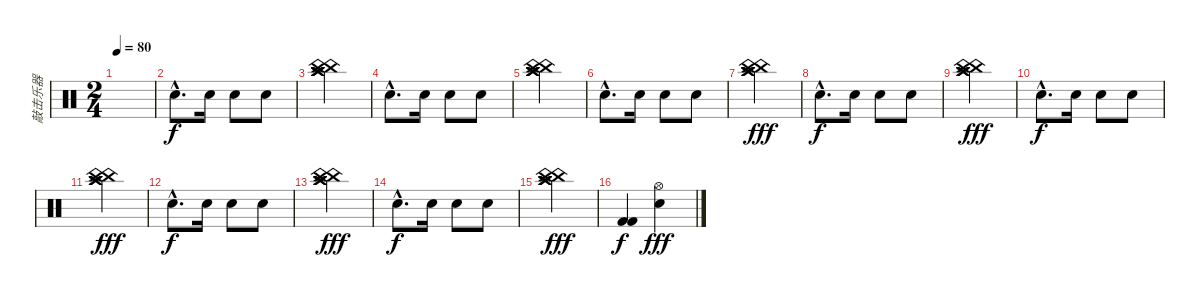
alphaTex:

\track ("敲击乐器" "敲击乐器") {instrument percussion}
\staff {score}
\articulation defaults
\ts (2 4)
\tempo 80
\clef neutral
\ks c
|
"Snare (hit) 2"{hac}.8{d} "Snare (hit) 2".16 "Snare (hit) 2".8 "Snare (hit) 2".8 |
("Crash high (hit)" "Crash high (hit)" "Crash high (hit)" "China (hit)" "China (hit)").4 |
"Snare (hit) 2"{hac}.8{d} "Snare (hit) 2".16 "Snare (hit) 2".8 "Snare (hit) 2".8 |
("Crash high (hit)" "Crash high (hit)" "Crash high (hit)" "China (hit)" "China (hit)").4 |
"Snare (hit) 2"{hac}.8{d dy f} "Snare (hit) 2".16 "Snare (hit) 2".8 "Snare (hit) 2".8 |
("Crash high (hit)" "Crash high (hit)" "Crash high (hit)" "China (hit)" "China (hit)").4{dy fff} |
"Snare (hit) 2"{hac}.8{d dy f} "Snare (hit) 2".16 "Snare (hit) 2".8 "Snare (hit) 2".8 |
("Crash high (hit)" "Crash high (hit)" "Crash high (hit)" "China (hit)" "China (hit)").4{dy fff} |
"Snare (hit) 2"{hac}.8{d dy f} "Snare (hit) 2".16 "Snare (hit) 2".8 "Snare (hit) 2".8 |
("Crash high (hit)" "Crash high (hit)" "Crash high (hit)" "China (hit)" "China (hit)").4{dy fff} |
"Snare (hit) 2"{hac}.8{d dy f} "Snare (hit) 2".16 "Snare (hit) 2".8 "Snare (hit) 2".8 |
("Crash high (hit)" "Crash high (hit)" "Crash high (hit)" "China (hit)" "China (hit)").4{dy fff} |
"Snare (hit) 2"{hac}.8{d dy f} "Snare (hit) 2".16 "Snare (hit) 2".8 "Snare (hit) 2".8 |
("Crash high (hit)" "Crash high (hit)" "Crash high (hit)" "China (hit)" "China (hit)").4{dy fff} |
("Kick (hit) 2" "Kick (hit) 2").4{dy f} ("Hi-Hat (open)" "Snare (hit) 2").4{dy fff}
